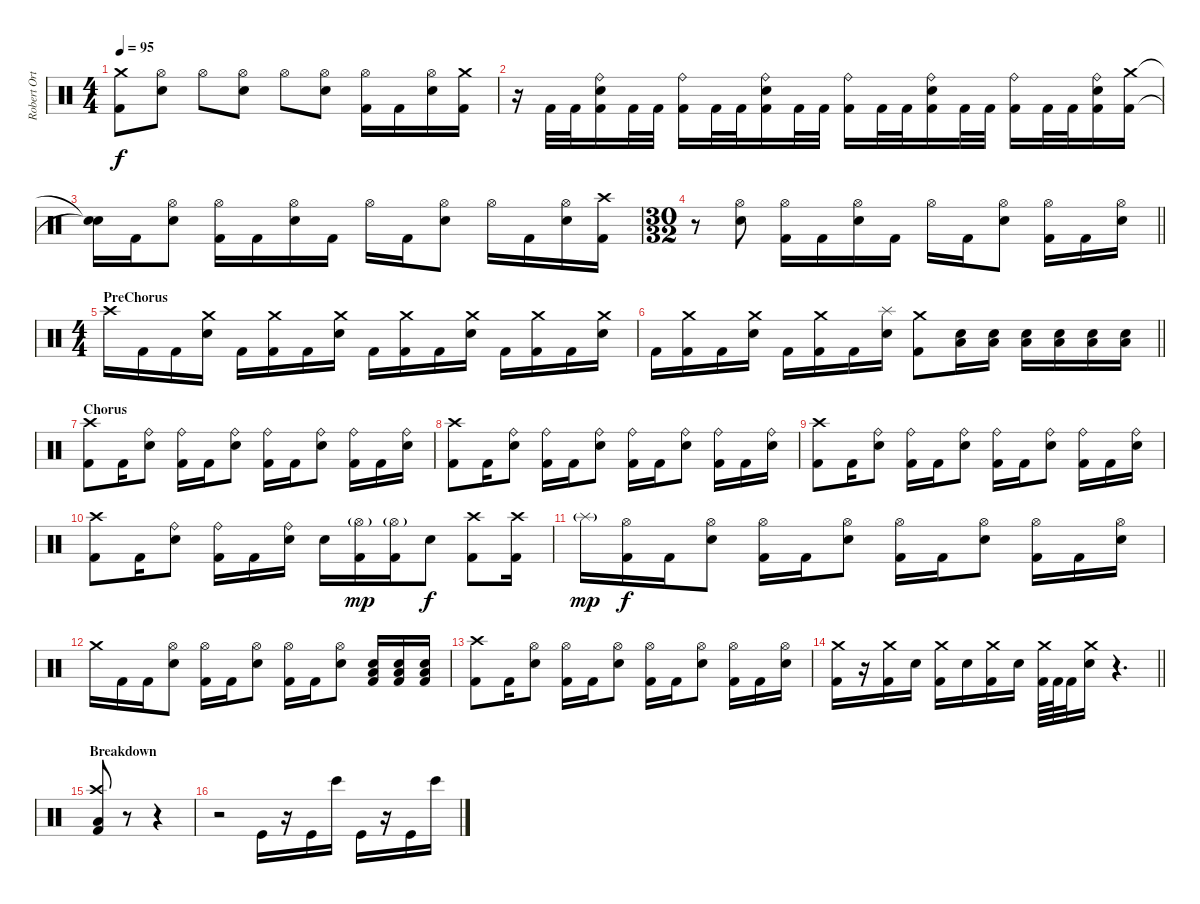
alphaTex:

\track ("Robert Ortiz (Drums)" "Robert Ort") {instrument percussion}
\staff {score}
\articulation defaults
\ts (4 4)
\tempo 95
\clef neutral
\ks c
("Crash medium (hit)" "Kick (hit) 2").8{dy f} ("Hi-Hat (open)" "Electric Snare (hit)").8 "Hi-Hat (open)".8 ("Hi-Hat (open)" "Electric Snare (hit)").8 "Hi-Hat (open)".8 ("Hi-Hat (open)" "Electric Snare (hit)").8 ("Hi-Hat (open)" "Kick (hit) 2").16 "Kick (hit) 2".16 ("Hi-Hat (open)" "Electric Snare (hit)").16 ("Crash medium (hit)" "Kick (hit) 2").16 |
r.16 "Kick (hit) 2".32 "Kick (hit) 2".32 ("Ride (bell)" "Electric Snare (hit)" "Kick (hit) 2").16 "Kick (hit) 2".32 "Kick (hit) 2".32 ("Ride (bell)" "Kick (hit) 2").16 "Kick (hit) 2".32 "Kick (hit) 2".32 ("Ride (bell)" "Electric Snare (hit)" "Kick (hit) 2").16 "Kick (hit) 2".32 "Kick (hit) 2".32 ("Ride (bell)" "Kick (hit) 2").16 "Kick (hit) 2".32 "Kick (hit) 2".32 ("Ride (bell)" "Electric Snare (hit)" "Kick (hit) 2").16 "Kick (hit) 2".32 "Kick (hit) 2".32 ("Ride (bell)" "Kick (hit) 2").16 "Kick (hit) 2".32 "Kick (hit) 2".32 ("Ride (bell)" "Electric Snare (hit)" "Kick (hit) 2").16 ("Crash medium (hit)" "Kick (hit) 2").16 |
("Snare (hit)"{t} "Snare (hit)"{t}).16 "Kick (hit) 2".16 ("Hi-Hat (open)" "Electric Snare (hit)").8 ("Hi-Hat (open)" "Kick (hit) 2").16 "Kick (hit) 2".16 ("Hi-Hat (open)" "Electric Snare (hit)").16 "Kick (hit) 2".16 "Hi-Hat (open)".16 "Kick (hit) 2".16 ("Hi-Hat (open)" "Electric Snare (hit)").8 "Hi-Hat (open)".16 "Kick (hit) 2".16 ("Hi-Hat (open)" "Electric Snare (hit)").16 ("Crash high (hit)" "Kick (hit) 2").16 |
\ts (30 32)
\barLineRight lightlight
r.8 ("Hi-Hat (open)" "Electric Snare (hit)").8 ("Hi-Hat (open)" "Kick (hit) 2").16 "Kick (hit) 2".16 ("Hi-Hat (open)" "Electric Snare (hit)").16 "Kick (hit) 2".16 "Hi-Hat (open)".16 "Kick (hit) 2".16 ("Hi-Hat (open)" "Electric Snare (hit)").8 ("Hi-Hat (open)" "Kick (hit) 2").16 "Kick (hit) 2".16 ("Hi-Hat (open)" "Electric Snare (hit)").16 |
\ts (4 4)
\section ("" "PreChorus")
"Crash high (hit)".16 "Kick (hit) 2".16 "Kick (hit) 2".16 ("Crash medium (hit)" "Electric Snare (hit)").16 "Kick (hit) 2".16 ("Crash medium (hit)" "Kick (hit) 2").16 "Kick (hit) 2".16 ("Crash medium (hit)" "Electric Snare (hit)").16 "Kick (hit) 2".16 ("Crash medium (hit)" "Kick (hit) 2").16 "Kick (hit) 2".16 ("Crash medium (hit)" "Electric Snare (hit)").16 "Kick (hit) 2".16 ("Crash medium (hit)" "Kick (hit) 2").16 "Kick (hit) 2".16 ("Crash medium (hit)" "Electric Snare (hit)").16 |
\barLineRight lightlight "Kick (hit) 2".16
("Crash medium (hit)" "Kick (hit) 2").16 "Kick (hit) 2".16 ("Crash medium (hit)" "Electric Snare (hit)").16 "Kick (hit) 2".16 ("Crash medium (hit)" "Kick (hit) 2").16 "Kick (hit) 2".16 ("Splash (hit)" "Electric Snare (hit)").16 ("Crash medium (hit)" "Kick (hit) 2").8{volume 5} ("Low Floor Tom (hit)" "Electric Snare (hit)").16{volume 16} ("Low Floor Tom (hit)" "Electric Snare (hit)").16 ("Low Floor Tom (hit)" "Electric Snare (hit)").16 ("Low Floor Tom (hit)" "Electric Snare (hit)").16 ("Low Floor Tom (hit)" "Electric Snare (hit)").16 ("Low Floor Tom (hit)" "Electric Snare (hit)").16 |
\section ("" "Chorus")
("Crash high (hit)" "Kick (hit) 2").8{volume 12} "Kick (hit) 2".16 ("Ride (bell)" "Electric Snare (hit)").8 ("Ride (bell)" "Kick (hit) 2").16 "Kick (hit) 2".16 ("Ride (bell)" "Electric Snare (hit)").8 ("Ride (bell)" "Kick (hit) 2").16 "Kick (hit) 2".16 ("Ride (bell)" "Electric Snare (hit)").8 ("Ride (bell)" "Kick (hit) 2").16 "Kick (hit) 2".16 ("Ride (bell)" "Electric Snare (hit)").16 |
("Crash high (hit)" "Kick (hit) 2").8 "Kick (hit) 2".16 ("Ride (bell)" "Electric Snare (hit)").8 ("Ride (bell)" "Kick (hit) 2").16 "Kick (hit) 2".16 ("Ride (bell)" "Electric Snare (hit)").8 ("Ride (bell)" "Kick (hit) 2").16 "Kick (hit) 2".16 ("Ride (bell)" "Electric Snare (hit)").8 ("Ride (bell)" "Kick (hit) 2").16 "Kick (hit) 2".16 ("Ride (bell)" "Electric Snare (hit)").16 |
("Crash high (hit)" "Kick (hit) 2").8 "Kick (hit) 2".16 ("Ride (bell)" "Electric Snare (hit)").8 ("Ride (bell)" "Kick (hit) 2").16 "Kick (hit) 2".16 ("Ride (bell)" "Electric Snare (hit)").8 ("Ride (bell)" "Kick (hit) 2").16 "Kick (hit) 2".16 ("Ride (bell)" "Electric Snare (hit)").8 ("Ride (bell)" "Kick (hit) 2").16 "Kick (hit) 2".16 ("Ride (bell)" "Electric Snare (hit)").16 |
("Crash high (hit)" "Kick (hit) 2").8 "Kick (hit) 2".16 ("Ride (bell)" "Electric Snare (hit)").8 ("Ride (bell)" "Kick (hit) 2").16 "Kick (hit) 2".16 ("Ride (bell)" "Electric Snare (hit)").16 "Electric Snare (hit)".16 ("Hi-Hat (open)"{g} "Kick (hit) 2").16{dy mp} ("Hi-Hat (open)"{g} "Kick (hit) 2").16 "Electric Snare (hit)".8{dy f} ("Crash high (hit)" "Kick (hit) 2").8 ("Crash high (hit)" "Kick (hit) 2").16 |
"Splash (hit)"{g}.16{dy mp} ("Hi-Hat (open)" "Kick (hit) 2").16{dy f} "Kick (hit) 2".16 ("Hi-Hat (open)" "Electric Snare (hit)").8 ("Hi-Hat (open)" "Kick (hit) 2").16 "Kick (hit) 2".16 ("Hi-Hat (open)" "Electric Snare (hit)").8 ("Hi-Hat (open)" "Kick (hit) 2").16 "Kick (hit) 2".16 ("Hi-Hat (open)" "Electric Snare (hit)").8 ("Hi-Hat (open)" "Kick (hit) 2").16 "Kick (hit) 2".16 ("Hi-Hat (open)" "Electric Snare (hit)").16 |
"Crash medium (hit)".16 "Kick (hit) 2".16 "Kick (hit) 2".16 ("Hi-Hat (open)" "Electric Snare (hit)").8 ("Hi-Hat (open)" "Kick (hit) 2").16 "Kick (hit) 2".16 ("Hi-Hat (open)" "Electric Snare (hit)").8 ("Hi-Hat (open)" "Kick (hit) 2").16 "Kick (hit) 2".16 ("Hi-Hat (open)" "Electric Snare (hit)").8 ("Electric Snare (hit)" "Low Floor Tom (hit)" "Kick (hit) 2").16 ("Electric Snare (hit)" "Low Floor Tom (hit)" "Kick (hit) 2").16 ("Electric Snare (hit)" "Low Floor Tom (hit)" "Kick (hit) 2").16 |
("Crash high (hit)" "Kick (hit) 2").8 "Kick (hit) 2".16 ("Hi-Hat (open)" "Electric Snare (hit)").8 ("Hi-Hat (open)" "Kick (hit) 2").16 "Kick (hit) 2".16 ("Hi-Hat (open)" "Electric Snare (hit)").8 ("Hi-Hat (open)" "Kick (hit) 2").16 "Kick (hit) 2".16 ("Hi-Hat (open)" "Electric Snare (hit)").8 ("Hi-Hat (open)" "Kick (hit) 2").16 "Kick (hit) 2".16 ("Hi-Hat (open)" "Electric Snare (hit)").16 |
\barLineRight lightlight
("Crash medium (hit)" "Kick (hit) 2").16 r.16 ("Crash medium (hit)" "Kick (hit) 2").16 "Electric Snare (hit)".16 ("Crash medium (hit)" "Kick (hit) 2").16 "Electric Snare (hit)".16 ("Crash medium (hit)" "Kick (hit) 2").16 "Electric Snare (hit)".16 ("Crash medium (hit)" "Kick (hit) 2").64 "Kick (hit) 2".64 "Kick (hit) 2".32 ("Crash medium (hit)" "Electric Snare (hit)").16 r.4{d} |
\section ("" "Breakdown")
("Crash high (hit)" "Low Floor Tom (hit)" "Kick (hit) 2").8 r.8 r.4 |
r.2 "Kick (hit)".16{volume 12} r.16 "Kick (hit)".16 "Bongo High (hit)".16 "Kick (hit)".16 r.16 "Kick (hit)".16 "Bongo High (hit)".16
